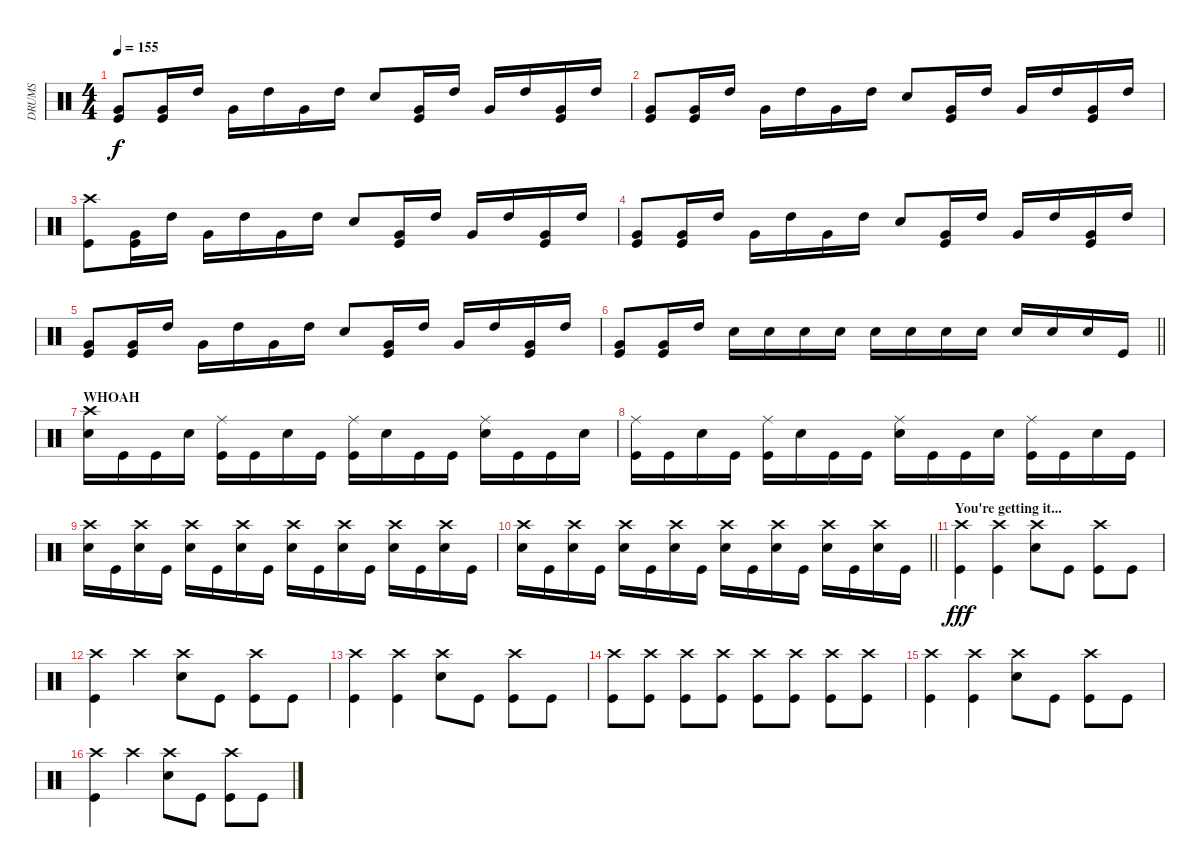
\track ("DRUMS" "DRUMS") {instrument percussion}
\staff {score}
\articulation defaults
\ts (4 4)
\tempo 155
\clef neutral
\ks c
("Very Low Tom (hit)" "Kick (hit)").8{dy f} ("Kick (hit)" "Very Low Tom (hit)").16 "High Tom (hit)".16 "Very Low Tom (hit)".16 "High Tom (hit)".16 "Very Low Tom (hit)".16 "High Tom (hit)".16 "Snare (hit) 2".8 ("Very Low Tom (hit)" "Kick (hit)").16 "High Tom (hit)".16 "Very Low Tom (hit)".16 "High Tom (hit)".16 ("Very Low Tom (hit)" "Kick (hit)").16 "High Tom (hit)".16 |
("Very Low Tom (hit)" "Kick (hit)").8 ("Kick (hit)" "Very Low Tom (hit)").16 "High Tom (hit)".16 "Very Low Tom (hit)".16 "High Tom (hit)".16 "Very Low Tom (hit)".16 "High Tom (hit)".16 "Snare (hit) 2".8 ("Very Low Tom (hit)" "Kick (hit)").16 "High Tom (hit)".16 "Very Low Tom (hit)".16 "High Tom (hit)".16 ("Very Low Tom (hit)" "Kick (hit)").16 "High Tom (hit)".16 |
("Crash high (hit)" "Kick (hit)").8 ("Kick (hit)" "Very Low Tom (hit)").16 "High Tom (hit)".16 "Very Low Tom (hit)".16 "High Tom (hit)".16 "Very Low Tom (hit)".16 "High Tom (hit)".16 "Snare (hit) 2".8 ("Very Low Tom (hit)" "Kick (hit)").16 "High Tom (hit)".16 "Very Low Tom (hit)".16 "High Tom (hit)".16 ("Very Low Tom (hit)" "Kick (hit)").16 "High Tom (hit)".16 |
("Very Low Tom (hit)" "Kick (hit)").8 ("Kick (hit)" "Very Low Tom (hit)").16 "High Tom (hit)".16 "Very Low Tom (hit)".16 "High Tom (hit)".16 "Very Low Tom (hit)".16 "High Tom (hit)".16 "Snare (hit) 2".8 ("Very Low Tom (hit)" "Kick (hit)").16 "High Tom (hit)".16 "Very Low Tom (hit)".16 "High Tom (hit)".16 ("Very Low Tom (hit)" "Kick (hit)").16 "High Tom (hit)".16 |
("Very Low Tom (hit)" "Kick (hit)").8 ("Kick (hit)" "Very Low Tom (hit)").16 "High Tom (hit)".16 "Very Low Tom (hit)".16 "High Tom (hit)".16 "Very Low Tom (hit)".16 "High Tom (hit)".16 "Snare (hit) 2".8 ("Very Low Tom (hit)" "Kick (hit)").16 "High Tom (hit)".16 "Very Low Tom (hit)".16 "High Tom (hit)".16 ("Very Low Tom (hit)" "Kick (hit)").16 "High Tom (hit)".16 |
\barLineRight lightlight
("Very Low Tom (hit)" "Kick (hit)").8 ("Kick (hit)" "Very Low Tom (hit)").16 "High Tom (hit)".16 "Snare (hit) 2".16 "Snare (hit) 2".16 "Snare (hit) 2".16 "Snare (hit) 2".16 "Snare (hit) 2".16 "Snare (hit) 2".16 "Snare (hit) 2".16 "Snare (hit) 2".16 "Snare (hit) 2".16 "Snare (hit) 2".16 "Snare (hit) 2".16 "Kick (hit)".16 |
\section ("" "WHOAH")
("Snare (hit) 2" "Crash high (hit)").16 "Kick (hit)".16 "Kick (hit)".16 "Snare (hit) 2".16 ("Kick (hit)" "Ride (middle)").16 "Kick (hit)".16 "Snare (hit) 2".16 "Kick (hit)".16 ("Kick (hit)" "Ride (middle)").16 "Snare (hit) 2".16 "Kick (hit)".16 "Kick (hit)".16 ("Snare (hit) 2" "Ride (middle)").16 "Kick (hit)".16 "Kick (hit)".16 "Snare (hit) 2".16 |
("Kick (hit)" "Ride (middle)").16 "Kick (hit)".16 "Snare (hit) 2".16 "Kick (hit)".16 ("Kick (hit)" "Ride (middle)").16 "Snare (hit) 2".16 "Kick (hit)".16 "Kick (hit)".16 ("Snare (hit) 2" "Ride (middle)").16 "Kick (hit)".16 "Kick (hit)".16 "Snare (hit) 2".16 ("Kick (hit)" "Ride (middle)").16 "Kick (hit)".16 "Snare (hit) 2".16 "Kick (hit)".16 |
("Snare (hit) 2" "Crash high (hit)").16 "Kick (hit)".16 ("Snare (hit) 2" "Crash high (hit)").16 "Kick (hit)".16 ("Snare (hit) 2" "Crash high (hit)").16 "Kick (hit)".16 ("Snare (hit) 2" "Crash high (hit)").16 "Kick (hit)".16 ("Snare (hit) 2" "Crash high (hit)").16 "Kick (hit)".16 ("Snare (hit) 2" "Crash high (hit)").16 "Kick (hit)".16 ("Snare (hit) 2" "Crash high (hit)").16 "Kick (hit)".16 ("Snare (hit) 2" "Crash high (hit)").16 "Kick (hit)".16 |
\barLineRight lightlight
("Snare (hit) 2" "Crash high (hit)").16 "Kick (hit)".16 ("Snare (hit) 2" "Crash high (hit)").16 "Kick (hit)".16 ("Snare (hit) 2" "Crash high (hit)").16 "Kick (hit)".16 ("Snare (hit) 2" "Crash high (hit)").16 "Kick (hit)".16 ("Snare (hit) 2" "Crash high (hit)").16 "Kick (hit)".16 ("Snare (hit) 2" "Crash high (hit)").16 "Kick (hit)".16 ("Snare (hit) 2" "Crash high (hit)").16 "Kick (hit)".16 ("Snare (hit) 2" "Crash high (hit)").16 "Kick (hit)".16 |
\section ("" "You're getting it...")
("Kick (hit)" "Crash high (hit)").4{dy fff} ("Crash high (hit)" "Kick (hit)").4 ("Snare (hit) 2" "Crash high (hit)").8 "Kick (hit)".8 ("Kick (hit)" "Crash high (hit)").8 "Kick (hit)".8 |
("Kick (hit)" "Crash high (hit)").4 "Crash high (hit)".4 ("Snare (hit) 2" "Crash high (hit)").8 "Kick (hit)".8 ("Kick (hit)" "Crash high (hit)").8 "Kick (hit)".8 |
("Kick (hit)" "Crash high (hit)").4 ("Crash high (hit)" "Kick (hit)").4 ("Snare (hit) 2" "Crash high (hit)").8 "Kick (hit)".8 ("Kick (hit)" "Crash high (hit)").8 "Kick (hit)".8 |
("Kick (hit)" "Crash high (hit)").8 ("Kick (hit)" "Crash high (hit)").8 ("Kick (hit)" "Crash high (hit)").8 ("Kick (hit)" "Crash high (hit)").8 ("Kick (hit)" "Crash high (hit)").8 ("Kick (hit)" "Crash high (hit)").8 ("Kick (hit)" "Crash high (hit)").8 ("Kick (hit)" "Crash high (hit)").8 |
("Kick (hit)" "Crash high (hit)").4 ("Crash high (hit)" "Kick (hit)").4 ("Snare (hit) 2" "Crash high (hit)").8 "Kick (hit)".8 ("Kick (hit)" "Crash high (hit)").8 "Kick (hit)".8 |
("Kick (hit)" "Crash high (hit)").4 "Crash high (hit)".4 ("Snare (hit) 2" "Crash high (hit)").8 "Kick (hit)".8 ("Kick (hit)" "Crash high (hit)").8 "Kick (hit)".8
